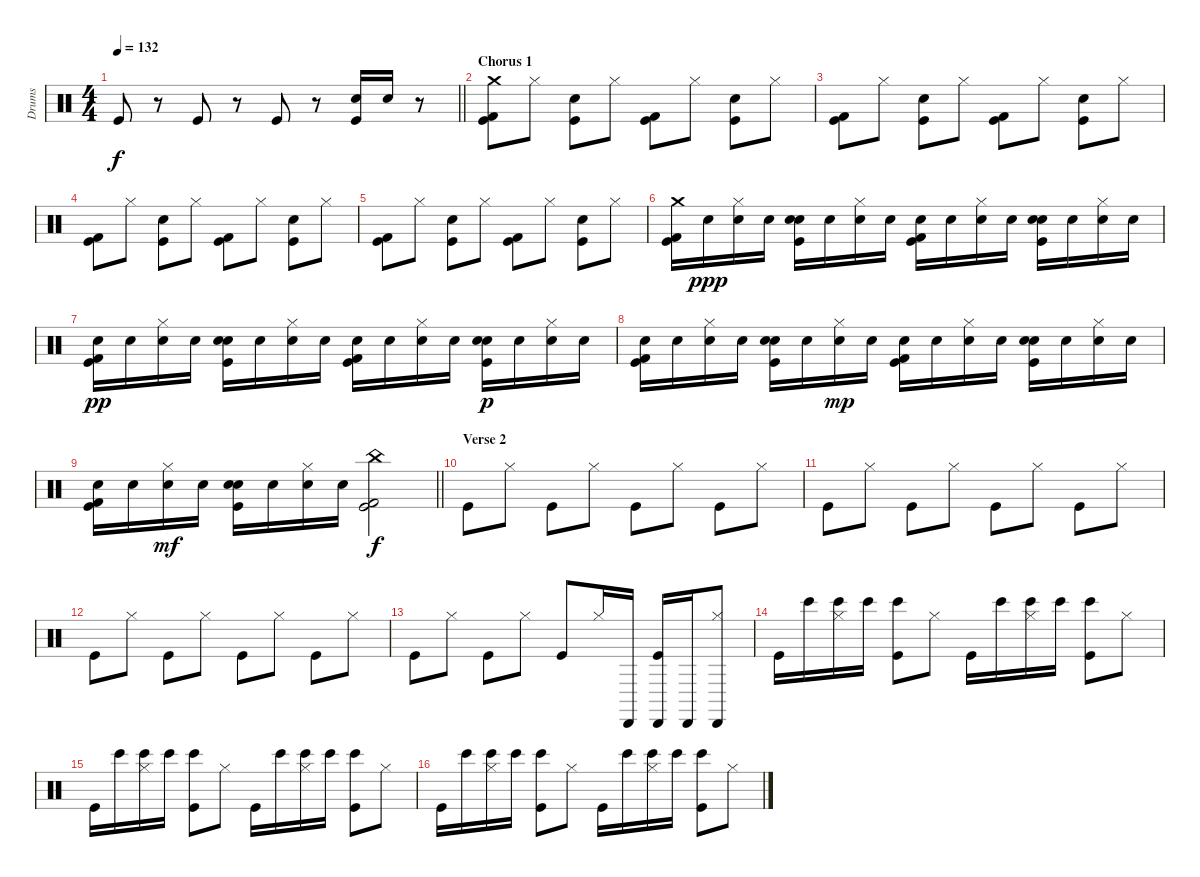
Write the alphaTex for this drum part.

\track ("Drums" "Drums") {instrument percussion}
\staff {score}
\articulation defaults
\ts (4 4)
\tempo 132
\clef neutral
\barLineRight lightlight
\ks c "Kick (hit)".8{dy f}
r.8 "Kick (hit)".8 r.8 "Kick (hit)".8 r.8 ("Snare (hit) 2" "Kick (hit)").16 "Snare (hit) 2".16 r.8 |
\section ("" "Chorus 1")
("Crash medium (hit)" "Kick (hit)" "Kick (hit) 2").8 "Hi-Hat (closed)".8 ("Hand Clap (hit)" "Kick (hit)").8 "Hi-Hat (closed)".8 ("Kick (hit) 2" "Kick (hit)").8 "Hi-Hat (closed)".8 ("Kick (hit)" "Hand Clap (hit)").8 "Hi-Hat (closed)".8 |
("Kick (hit) 2" "Kick (hit)").8 "Hi-Hat (closed)".8 ("Kick (hit)" "Hand Clap (hit)").8 "Hi-Hat (closed)".8 ("Kick (hit)" "Kick (hit) 2").8 "Hi-Hat (closed)".8 ("Kick (hit)" "Hand Clap (hit)").8 "Hi-Hat (closed)".8 |
("Kick (hit)" "Kick (hit) 2").8 "Hi-Hat (closed)".8 ("Hand Clap (hit)" "Kick (hit)").8 "Hi-Hat (closed)".8 ("Kick (hit)" "Kick (hit) 2").8 "Hi-Hat (closed)".8 ("Kick (hit)" "Hand Clap (hit)").8 "Hi-Hat (closed)".8 |
("Kick (hit)" "Kick (hit) 2").8 "Hi-Hat (closed)".8 ("Hand Clap (hit)" "Kick (hit)").8 "Hi-Hat (closed)".8 ("Kick (hit)" "Kick (hit) 2").8 "Hi-Hat (closed)".8 ("Kick (hit)" "Hand Clap (hit)").8 "Hi-Hat (closed)".8 |
("Crash medium (hit)" "Kick (hit)" "Kick (hit) 2").16 "Electric Snare (hit)".16{dy ppp} ("Electric Snare (hit)" "Hi-Hat (closed)").16 "Electric Snare (hit)".16 ("Electric Snare (hit)" "Hand Clap (hit)" "Kick (hit)").16 "Electric Snare (hit)".16 ("Electric Snare (hit)" "Hi-Hat (closed)").16 "Electric Snare (hit)".16 ("Electric Snare (hit)" "Kick (hit)" "Kick (hit) 2").16 "Electric Snare (hit)".16 ("Hi-Hat (closed)" "Electric Snare (hit)").16 "Electric Snare (hit)".16 ("Electric Snare (hit)" "Kick (hit)" "Hand Clap (hit)").16 "Electric Snare (hit)".16 ("Hi-Hat (closed)" "Electric Snare (hit)").16 "Electric Snare (hit)".16 |
("Electric Snare (hit)" "Kick (hit) 2" "Kick (hit)").16{dy pp} "Electric Snare (hit)".16 ("Electric Snare (hit)" "Hi-Hat (closed)").16 "Electric Snare (hit)".16 ("Electric Snare (hit)" "Kick (hit)" "Hand Clap (hit)").16 "Electric Snare (hit)".16 ("Electric Snare (hit)" "Hi-Hat (closed)").16 "Electric Snare (hit)".16 ("Kick (hit)" "Electric Snare (hit)" "Kick (hit) 2").16 "Electric Snare (hit)".16 ("Electric Snare (hit)" "Hi-Hat (closed)").16 "Electric Snare (hit)".16 ("Hand Clap (hit)" "Kick (hit)" "Electric Snare (hit)").16{dy p} "Electric Snare (hit)".16 ("Electric Snare (hit)" "Hi-Hat (closed)").16 "Electric Snare (hit)".16 |
("Kick (hit)" "Electric Snare (hit)" "Kick (hit) 2").16 "Electric Snare (hit)".16 ("Electric Snare (hit)" "Hi-Hat (closed)").16 "Electric Snare (hit)".16 ("Kick (hit)" "Hand Clap (hit)" "Electric Snare (hit)").16 "Electric Snare (hit)".16 ("Electric Snare (hit)" "Hi-Hat (closed)").16{dy mp} "Electric Snare (hit)".16 ("Kick (hit) 2" "Kick (hit)" "Electric Snare (hit)").16 "Electric Snare (hit)".16 ("Electric Snare (hit)" "Hi-Hat (closed)").16 "Electric Snare (hit)".16 ("Kick (hit)" "Hand Clap (hit)" "Electric Snare (hit)").16 "Electric Snare (hit)".16 ("Hi-Hat (closed)" "Electric Snare (hit)").16 "Electric Snare (hit)".16 |
\barLineRight lightlight
("Kick (hit) 2" "Kick (hit)" "Electric Snare (hit)").16 "Electric Snare (hit)".16 ("Hi-Hat (closed)" "Electric Snare (hit)").16{dy mf} "Electric Snare (hit)".16 ("Kick (hit)" "Electric Snare (hit)" "Hand Clap (hit)").16 "Electric Snare (hit)".16 ("Hi-Hat (closed)" "Electric Snare (hit)").16 "Electric Snare (hit)".16 ("Kick (hit) 2" "Kick (hit)" "China (hit)").2{dy f} |
\section ("" "Verse 2")
"Kick (hit)".8 "Hi-Hat (closed)".8 "Kick (hit)".8 "Hi-Hat (closed)".8 "Kick (hit)".8 "Hi-Hat (closed)".8 "Kick (hit)".8 "Hi-Hat (closed)".8 |
"Kick (hit)".8 "Hi-Hat (closed)".8 "Kick (hit)".8 "Hi-Hat (closed)".8 "Kick (hit)".8 "Hi-Hat (closed)".8 "Kick (hit)".8 "Hi-Hat (closed)".8 |
"Kick (hit)".8 "Hi-Hat (closed)".8 "Kick (hit)".8 "Hi-Hat (closed)".8 "Kick (hit)".8 "Hi-Hat (closed)".8 "Kick (hit)".8 "Hi-Hat (closed)".8 |
"Kick (hit)".8 "Hi-Hat (closed)".8 "Kick (hit)".8 "Hi-Hat (closed)".8 "Kick (hit)".8 "Hi-Hat (closed)".16 "Cabasa (hit)".16 ("Cabasa (hit)" "Kick (hit)").16 "Cabasa (hit)".16 ("Cabasa (hit)" "Hi-Hat (closed)").8 |
"Kick (hit)".16 "Bongo High (hit)".16 ("Bongo High (hit)" "Hi-Hat (closed)").16 "Bongo High (hit)".16 ("Bongo High (hit)" "Kick (hit)").8 "Hi-Hat (closed)".8 "Kick (hit)".16 "Bongo High (hit)".16 ("Hi-Hat (closed)" "Bongo High (hit)").16 "Bongo High (hit)".16 ("Bongo High (hit)" "Kick (hit)").8 "Hi-Hat (closed)".8 |
"Kick (hit)".16 "Bongo High (hit)".16 ("Bongo High (hit)" "Hi-Hat (closed)").16 "Bongo High (hit)".16 ("Bongo High (hit)" "Kick (hit)").8 "Hi-Hat (closed)".8 "Kick (hit)".16 "Bongo High (hit)".16 ("Hi-Hat (closed)" "Bongo High (hit)").16 "Bongo High (hit)".16 ("Bongo High (hit)" "Kick (hit)").8 "Hi-Hat (closed)".8 |
"Kick (hit)".16 "Bongo High (hit)".16 ("Bongo High (hit)" "Hi-Hat (closed)").16 "Bongo High (hit)".16 ("Bongo High (hit)" "Kick (hit)").8 "Hi-Hat (closed)".8 "Kick (hit)".16 "Bongo High (hit)".16 ("Hi-Hat (closed)" "Bongo High (hit)").16 "Bongo High (hit)".16 ("Bongo High (hit)" "Kick (hit)").8 "Hi-Hat (closed)".8
